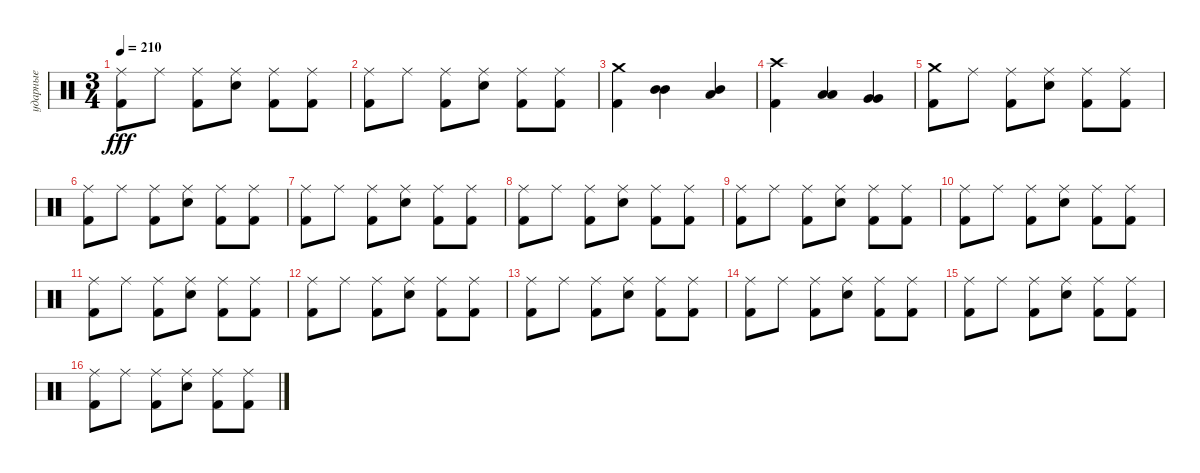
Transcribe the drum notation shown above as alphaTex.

\track ("ударные" "ударные") {instrument percussion}
\staff {score}
\articulation defaults
\ts (3 4)
\tempo 210
\clef neutral
\ks c
("Ride (middle)" "Kick (hit) 2").8{dy fff} "Ride (middle)".8 ("Ride (middle)" "Kick (hit) 2").8 ("Ride (middle)" "Snare (hit) 2").8 ("Ride (middle)" "Kick (hit) 2").8 ("Ride (middle)" "Kick (hit) 2").8 |
("Ride (middle)" "Kick (hit) 2").8 "Ride (middle)".8 ("Ride (middle)" "Kick (hit) 2").8 ("Ride (middle)" "Snare (hit) 2").8 ("Ride (middle)" "Kick (hit) 2").8 ("Ride (middle)" "Kick (hit) 2").8 |
("Crash medium (hit)" "Kick (hit) 2").4 ("Mid Tom (hit)" "Mid Tom (hit)").4{bd 60} ("Mid Tom (hit)" "Low Tom (hit)").4{bd 60} |
("Crash high (hit)" "Kick (hit) 2").4 ("Low Tom (hit)" "Low Tom (hit)").4{bd 60} ("Very Low Tom (hit)" "Very Low Tom (hit)").4{bd 60} |
("Crash medium (hit)" "Kick (hit) 2").8 "Ride (middle)".8 ("Ride (middle)" "Kick (hit) 2").8 ("Ride (middle)" "Snare (hit) 2").8 ("Ride (middle)" "Kick (hit) 2").8 ("Ride (middle)" "Kick (hit) 2").8 |
("Ride (middle)" "Kick (hit) 2").8 "Ride (middle)".8 ("Ride (middle)" "Kick (hit) 2").8 ("Ride (middle)" "Snare (hit) 2").8 ("Ride (middle)" "Kick (hit) 2").8 ("Ride (middle)" "Kick (hit) 2").8 |
("Ride (middle)" "Kick (hit) 2").8 "Ride (middle)".8 ("Ride (middle)" "Kick (hit) 2").8 ("Ride (middle)" "Snare (hit) 2").8 ("Ride (middle)" "Kick (hit) 2").8 ("Ride (middle)" "Kick (hit) 2").8 |
("Ride (middle)" "Kick (hit) 2").8 "Ride (middle)".8 ("Ride (middle)" "Kick (hit) 2").8 ("Ride (middle)" "Snare (hit) 2").8 ("Ride (middle)" "Kick (hit) 2").8 ("Ride (middle)" "Kick (hit) 2").8 |
("Ride (middle)" "Kick (hit) 2").8 "Ride (middle)".8 ("Ride (middle)" "Kick (hit) 2").8 ("Ride (middle)" "Snare (hit) 2").8 ("Ride (middle)" "Kick (hit) 2").8 ("Ride (middle)" "Kick (hit) 2").8 |
("Ride (middle)" "Kick (hit) 2").8 "Ride (middle)".8 ("Ride (middle)" "Kick (hit) 2").8 ("Ride (middle)" "Snare (hit) 2").8 ("Ride (middle)" "Kick (hit) 2").8 ("Ride (middle)" "Kick (hit) 2").8 |
("Ride (middle)" "Kick (hit) 2").8 "Ride (middle)".8 ("Ride (middle)" "Kick (hit) 2").8 ("Ride (middle)" "Snare (hit) 2").8 ("Ride (middle)" "Kick (hit) 2").8 ("Ride (middle)" "Kick (hit) 2").8 |
("Ride (middle)" "Kick (hit) 2").8 "Ride (middle)".8 ("Ride (middle)" "Kick (hit) 2").8 ("Ride (middle)" "Snare (hit) 2").8 ("Ride (middle)" "Kick (hit) 2").8 ("Ride (middle)" "Kick (hit) 2").8 |
("Ride (middle)" "Kick (hit) 2").8 "Ride (middle)".8 ("Ride (middle)" "Kick (hit) 2").8 ("Ride (middle)" "Snare (hit) 2").8 ("Ride (middle)" "Kick (hit) 2").8 ("Ride (middle)" "Kick (hit) 2").8 |
("Ride (middle)" "Kick (hit) 2").8 "Ride (middle)".8 ("Ride (middle)" "Kick (hit) 2").8 ("Ride (middle)" "Snare (hit) 2").8 ("Ride (middle)" "Kick (hit) 2").8 ("Ride (middle)" "Kick (hit) 2").8 |
("Ride (middle)" "Kick (hit) 2").8 "Ride (middle)".8 ("Ride (middle)" "Kick (hit) 2").8 ("Ride (middle)" "Snare (hit) 2").8 ("Ride (middle)" "Kick (hit) 2").8 ("Ride (middle)" "Kick (hit) 2").8 |
("Ride (middle)" "Kick (hit) 2").8 "Ride (middle)".8 ("Ride (middle)" "Kick (hit) 2").8 ("Ride (middle)" "Snare (hit) 2").8 ("Ride (middle)" "Kick (hit) 2").8 ("Ride (middle)" "Kick (hit) 2").8
